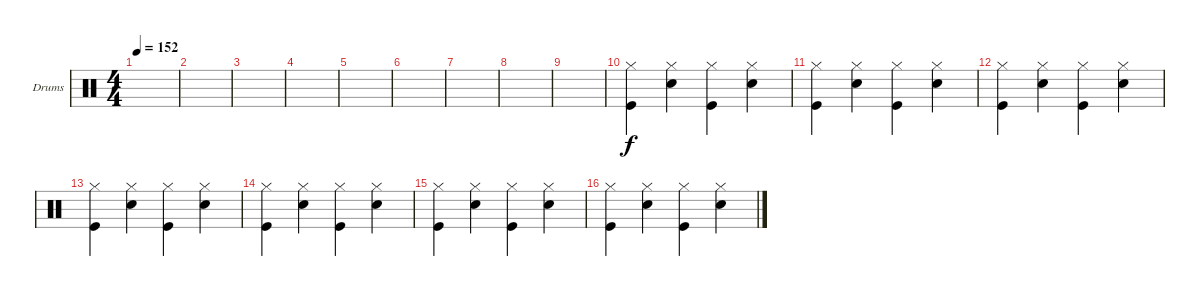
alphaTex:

\bracketExtendMode groupsimilarinstruments
\firstSystemTrackNameOrientation horizontal
\otherSystemsTrackNameOrientation horizontal
\track ("Drumkit" "Drums") {instrument percussion}
\staff {score}
\articulation defaults
\ts (4 4)
\beaming (8 2 2 2 2)
\tempo 152
\clef neutral
\scale
0.474178
\ks c
|
\scale
0.262911 |
\scale
0.262911 |
\scale
0.333333 |
\scale
0.333333 |
\scale
0.333333 |
\scale
0.333333 |
\scale
0.333333 |
\scale
0.333333 |
\scale
0.333333 ("Hi-Hat (closed)" "Kick (hit)").4 ("Snare (hit) 2" "Hi-Hat (closed)").4 ("Kick (hit)" "Hi-Hat (closed)").4 ("Snare (hit) 2" "Hi-Hat (closed)").4 |
\scale
0.333333 ("Hi-Hat (closed)" "Kick (hit)").4 ("Snare (hit) 2" "Hi-Hat (closed)").4 ("Kick (hit)" "Hi-Hat (closed)").4 ("Snare (hit) 2" "Hi-Hat (closed)").4 |
\scale
0.333333 ("Hi-Hat (closed)" "Kick (hit)").4 ("Snare (hit) 2" "Hi-Hat (closed)").4 ("Kick (hit)" "Hi-Hat (closed)").4 ("Snare (hit) 2" "Hi-Hat (closed)").4 |
\scale
0.333333 ("Hi-Hat (closed)" "Kick (hit)").4 ("Snare (hit) 2" "Hi-Hat (closed)").4 ("Kick (hit)" "Hi-Hat (closed)").4 ("Snare (hit) 2" "Hi-Hat (closed)").4 |
\scale
0.333333 ("Hi-Hat (closed)" "Kick (hit)").4 ("Snare (hit) 2" "Hi-Hat (closed)").4 ("Kick (hit)" "Hi-Hat (closed)").4 ("Snare (hit) 2" "Hi-Hat (closed)").4 |
\scale
0.333333 ("Hi-Hat (closed)" "Kick (hit)").4 ("Snare (hit) 2" "Hi-Hat (closed)").4 ("Kick (hit)" "Hi-Hat (closed)").4 ("Snare (hit) 2" "Hi-Hat (closed)").4 |
\scale
0.333333 ("Hi-Hat (closed)" "Kick (hit)").4 ("Snare (hit) 2" "Hi-Hat (closed)").4 ("Kick (hit)" "Hi-Hat (closed)").4 ("Snare (hit) 2" "Hi-Hat (closed)").4
